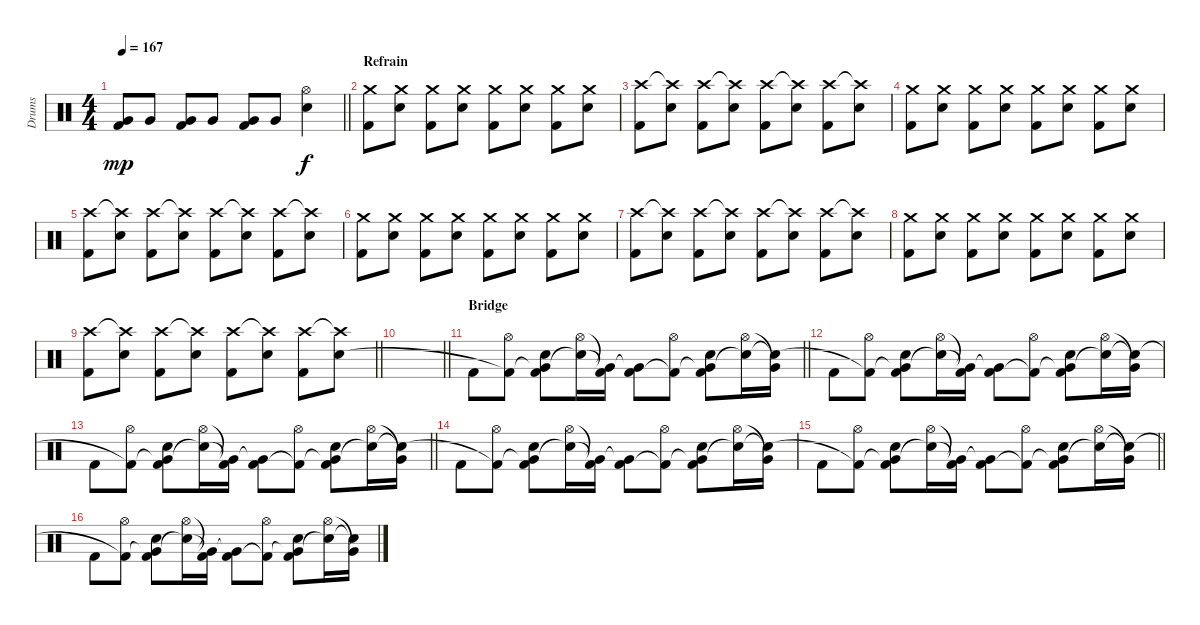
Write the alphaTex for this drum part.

\track ("Drums" "Drums") {instrument percussion}
\staff {score}
\articulation defaults
\ts (4 4)
\tempo 167
\clef neutral
\barLineRight lightlight
\ks c
("Very Low Tom (hit)" "Kick (hit) 2").8{dy mp} "Very Low Tom (hit)".8 ("Very Low Tom (hit)" "Kick (hit) 2").8 "Very Low Tom (hit)".8 ("Very Low Tom (hit)" "Kick (hit) 2").8 "Very Low Tom (hit)".8 ("Hi-Hat (open)" "Snare (hit) 2").4{dy f} |
\section ("" "Refrain")
("Crash medium (hit)" "Kick (hit) 2").8 ("Crash medium (hit)" "Snare (hit) 2").8 ("Crash medium (hit)" "Kick (hit) 2").8 ("Crash medium (hit)" "Snare (hit) 2").8 ("Crash medium (hit)" "Kick (hit) 2").8 ("Crash medium (hit)" "Snare (hit) 2").8 ("Crash medium (hit)" "Kick (hit) 2").8 ("Crash medium (hit)" "Snare (hit) 2").8 |
("Crash high (hit)" "Kick (hit) 2").8 ("Crash high (hit)"{t} "Snare (hit) 2").8 ("Crash high (hit)" "Kick (hit) 2").8 ("Crash high (hit)"{t} "Snare (hit) 2").8 ("Crash high (hit)" "Kick (hit) 2").8 ("Crash high (hit)"{t} "Snare (hit) 2").8 ("Crash high (hit)" "Kick (hit) 2").8 ("Crash high (hit)"{t} "Snare (hit) 2").8 |
("Crash medium (hit)" "Kick (hit) 2").8 ("Crash medium (hit)" "Snare (hit) 2").8 ("Crash medium (hit)" "Kick (hit) 2").8 ("Crash medium (hit)" "Snare (hit) 2").8 ("Crash medium (hit)" "Kick (hit) 2").8 ("Crash medium (hit)" "Snare (hit) 2").8 ("Crash medium (hit)" "Kick (hit) 2").8 ("Crash medium (hit)" "Snare (hit) 2").8 |
("Crash high (hit)" "Kick (hit) 2").8 ("Crash high (hit)"{t} "Snare (hit) 2").8 ("Crash high (hit)" "Kick (hit) 2").8 ("Crash high (hit)"{t} "Snare (hit) 2").8 ("Crash high (hit)" "Kick (hit) 2").8 ("Crash high (hit)"{t} "Snare (hit) 2").8 ("Crash high (hit)" "Kick (hit) 2").8 ("Crash high (hit)"{t} "Snare (hit) 2").8 |
("Crash medium (hit)" "Kick (hit) 2").8 ("Crash medium (hit)" "Snare (hit) 2").8 ("Crash medium (hit)" "Kick (hit) 2").8 ("Crash medium (hit)" "Snare (hit) 2").8 ("Crash medium (hit)" "Kick (hit) 2").8 ("Crash medium (hit)" "Snare (hit) 2").8 ("Crash medium (hit)" "Kick (hit) 2").8 ("Crash medium (hit)" "Snare (hit) 2").8 |
("Crash high (hit)" "Kick (hit) 2").8 ("Crash high (hit)"{t} "Snare (hit) 2").8 ("Crash high (hit)" "Kick (hit) 2").8 ("Crash high (hit)"{t} "Snare (hit) 2").8 ("Crash high (hit)" "Kick (hit) 2").8 ("Crash high (hit)"{t} "Snare (hit) 2").8 ("Crash high (hit)" "Kick (hit) 2").8 ("Crash high (hit)"{t} "Snare (hit) 2").8 |
("Crash medium (hit)" "Kick (hit) 2").8 ("Crash medium (hit)" "Snare (hit) 2").8 ("Crash medium (hit)" "Kick (hit) 2").8 ("Crash medium (hit)" "Snare (hit) 2").8 ("Crash medium (hit)" "Kick (hit) 2").8 ("Crash medium (hit)" "Snare (hit) 2").8 ("Crash medium (hit)" "Kick (hit) 2").8 ("Crash medium (hit)" "Snare (hit) 2").8 |
\barLineRight lightlight
("Crash high (hit)" "Kick (hit) 2").8 ("Crash high (hit)"{t} "Snare (hit) 2").8 ("Crash high (hit)" "Kick (hit) 2").8 ("Crash high (hit)"{t} "Snare (hit) 2").8 ("Crash high (hit)" "Kick (hit) 2").8 ("Crash high (hit)"{t} "Snare (hit) 2").8 ("Crash high (hit)" "Kick (hit) 2").8 ("Crash high (hit)"{t} "Snare (hit) 2").8 |
\barLineRight lightlight
|
\section ("" "Bridge")
\barLineRight lightlight "Kick (hit) 2".8
("Hi-Hat (open)" "Kick (hit) 2"{t}).8 ("Snare (hit) 2" "Very Low Tom (hit)"{t} "Kick (hit) 2").8 ("Hi-Hat (open)" "Snare (hit)"{t}).16 ("Very Low Tom (hit)"{t} "Kick (hit) 2"{t}).16 ("Very Low Tom (hit)"{t} "Kick (hit) 2").8 ("Hi-Hat (open)" "Kick (hit) 2"{t}).8 ("Snare (hit) 2" "Very Low Tom (hit)"{t} "Kick (hit) 2").8 ("Hi-Hat (open)" "Snare (hit)"{t}).16 ("Very Low Tom (hit)"{t} "Snare (hit)"{t}).16 |
"Kick (hit) 2".8 ("Hi-Hat (open)" "Kick (hit) 2"{t}).8 ("Snare (hit) 2" "Very Low Tom (hit)"{t} "Kick (hit) 2").8 ("Hi-Hat (open)" "Snare (hit)"{t}).16 ("Very Low Tom (hit)"{t} "Kick (hit) 2"{t}).16 ("Very Low Tom (hit)"{t} "Kick (hit) 2").8 ("Hi-Hat (open)" "Kick (hit) 2"{t}).8 ("Snare (hit) 2" "Very Low Tom (hit)"{t} "Kick (hit) 2").8 ("Hi-Hat (open)" "Snare (hit)"{t}).16 ("Very Low Tom (hit)"{t} "Snare (hit)"{t}).16 |
\barLineRight lightlight "Kick (hit) 2".8
("Hi-Hat (open)" "Kick (hit) 2"{t}).8 ("Snare (hit) 2" "Very Low Tom (hit)"{t} "Kick (hit) 2").8 ("Hi-Hat (open)" "Snare (hit)"{t}).16 ("Very Low Tom (hit)"{t} "Kick (hit) 2"{t}).16 ("Very Low Tom (hit)"{t} "Kick (hit) 2").8 ("Hi-Hat (open)" "Kick (hit) 2"{t}).8 ("Snare (hit) 2" "Very Low Tom (hit)"{t} "Kick (hit) 2").8 ("Hi-Hat (open)" "Snare (hit)"{t}).16 ("Very Low Tom (hit)"{t} "Snare (hit)"{t}).16 |
"Kick (hit) 2".8 ("Hi-Hat (open)" "Kick (hit) 2"{t}).8 ("Snare (hit) 2" "Very Low Tom (hit)"{t} "Kick (hit) 2").8 ("Hi-Hat (open)" "Snare (hit)"{t}).16 ("Very Low Tom (hit)"{t} "Kick (hit) 2"{t}).16 ("Very Low Tom (hit)"{t} "Kick (hit) 2").8 ("Hi-Hat (open)" "Kick (hit) 2"{t}).8 ("Snare (hit) 2" "Very Low Tom (hit)"{t} "Kick (hit) 2").8 ("Hi-Hat (open)" "Snare (hit)"{t}).16 ("Very Low Tom (hit)"{t} "Snare (hit)"{t}).16 |
\barLineRight lightlight "Kick (hit) 2".8
("Hi-Hat (open)" "Kick (hit) 2"{t}).8 ("Snare (hit) 2" "Very Low Tom (hit)"{t} "Kick (hit) 2").8 ("Hi-Hat (open)" "Snare (hit)"{t}).16 ("Very Low Tom (hit)"{t} "Kick (hit) 2"{t}).16 ("Very Low Tom (hit)"{t} "Kick (hit) 2").8 ("Hi-Hat (open)" "Kick (hit) 2"{t}).8 ("Snare (hit) 2" "Very Low Tom (hit)"{t} "Kick (hit) 2").8 ("Hi-Hat (open)" "Snare (hit)"{t}).16 ("Very Low Tom (hit)"{t} "Snare (hit)"{t}).16 |
"Kick (hit) 2".8 ("Hi-Hat (open)" "Kick (hit) 2"{t}).8 ("Snare (hit) 2" "Very Low Tom (hit)"{t} "Kick (hit) 2").8 ("Hi-Hat (open)" "Snare (hit)"{t}).16 ("Very Low Tom (hit)"{t} "Kick (hit) 2"{t}).16 ("Very Low Tom (hit)"{t} "Kick (hit) 2").8 ("Hi-Hat (open)" "Kick (hit) 2"{t}).8 ("Snare (hit) 2" "Very Low Tom (hit)"{t} "Kick (hit) 2").8 ("Hi-Hat (open)" "Snare (hit)"{t}).16 ("Very Low Tom (hit)"{t} "Snare (hit)"{t}).16
